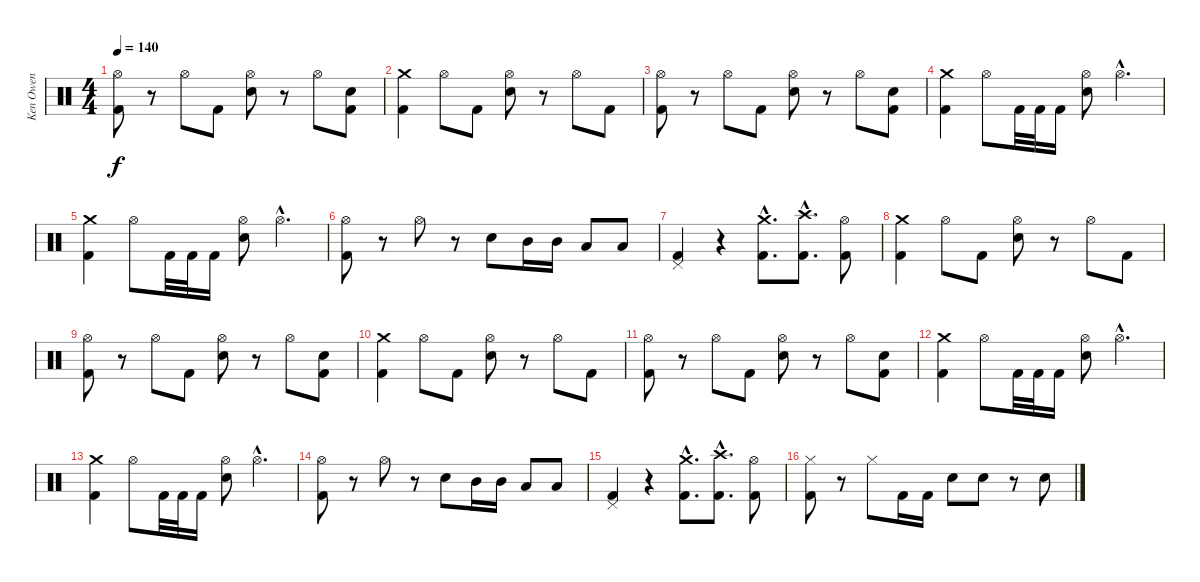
\track ("Ken Owen" "Ken Owen") {instrument percussion}
\staff {score}
\articulation defaults
\ts (4 4)
\tempo 140
\clef neutral
\ks c
("Hi-Hat (open)" "Kick (hit) 2").8{dy f} r.8 "Hi-Hat (open)".8 "Kick (hit) 2".8 ("Hi-Hat (open)" "Electric Snare (hit)").8 r.8 "Hi-Hat (open)".8 ("Electric Snare (hit)" "Kick (hit) 2").8 |
("Crash medium (hit)" "Kick (hit) 2").4 "Hi-Hat (open)".8 "Kick (hit) 2".8 ("Hi-Hat (open)" "Electric Snare (hit)").8 r.8 "Hi-Hat (open)".8 "Kick (hit) 2".8 |
("Hi-Hat (open)" "Kick (hit) 2").8 r.8 "Hi-Hat (open)".8 "Kick (hit) 2".8 ("Hi-Hat (open)" "Electric Snare (hit)").8 r.8 "Hi-Hat (open)".8 ("Electric Snare (hit)" "Kick (hit) 2").8 |
("Crash medium (hit)" "Kick (hit) 2").4 "Hi-Hat (open)".8 "Kick (hit) 2".32 "Kick (hit) 2".32 "Kick (hit) 2".16 ("Hi-Hat (open)" "Electric Snare (hit)").8 "Hi-Hat (open)"{hac}.4{d} |
("Crash medium (hit)" "Kick (hit) 2").4 "Hi-Hat (open)".8 "Kick (hit) 2".32 "Kick (hit) 2".32 "Kick (hit) 2".16 ("Hi-Hat (open)" "Electric Snare (hit)").8 "Hi-Hat (open)"{hac}.4{d} |
("Hi-Hat (open)" "Kick (hit) 2").8 r.8 "Hi-Hat (open)".8 r.8 "Electric Snare (hit)".8 "Mid Tom (hit)".16 "Mid Tom (hit)".16 "Low Floor Tom (hit)".8 "Low Floor Tom (hit)".8 |
("Pedal Hi-Hat (hit)" "Kick (hit) 2").4 r.4 ("Crash medium (hit)"{hac} "Kick (hit) 2"{hac}).8{d} ("Crash high (hit)"{hac} "Kick (hit) 2"{hac}).8{d} ("Hi-Hat (open)" "Kick (hit) 2").8 |
("Crash medium (hit)" "Kick (hit) 2").4 "Hi-Hat (open)".8 "Kick (hit) 2".8 ("Hi-Hat (open)" "Electric Snare (hit)").8 r.8 "Hi-Hat (open)".8 "Kick (hit) 2".8 |
("Hi-Hat (open)" "Kick (hit) 2").8 r.8 "Hi-Hat (open)".8 "Kick (hit) 2".8 ("Hi-Hat (open)" "Electric Snare (hit)").8 r.8 "Hi-Hat (open)".8 ("Electric Snare (hit)" "Kick (hit) 2").8 |
("Crash medium (hit)" "Kick (hit) 2").4 "Hi-Hat (open)".8 "Kick (hit) 2".8 ("Hi-Hat (open)" "Electric Snare (hit)").8 r.8 "Hi-Hat (open)".8 "Kick (hit) 2".8 |
("Hi-Hat (open)" "Kick (hit) 2").8 r.8 "Hi-Hat (open)".8 "Kick (hit) 2".8 ("Hi-Hat (open)" "Electric Snare (hit)").8 r.8 "Hi-Hat (open)".8 ("Electric Snare (hit)" "Kick (hit) 2").8 |
("Crash medium (hit)" "Kick (hit) 2").4 "Hi-Hat (open)".8 "Kick (hit) 2".32 "Kick (hit) 2".32 "Kick (hit) 2".16 ("Hi-Hat (open)" "Electric Snare (hit)").8 "Hi-Hat (open)"{hac}.4{d} |
("Crash medium (hit)" "Kick (hit) 2").4 "Hi-Hat (open)".8 "Kick (hit) 2".32 "Kick (hit) 2".32 "Kick (hit) 2".16 ("Hi-Hat (open)" "Electric Snare (hit)").8 "Hi-Hat (open)"{hac}.4{d} |
("Hi-Hat (open)" "Kick (hit) 2").8 r.8 "Hi-Hat (open)".8 r.8 "Electric Snare (hit)".8 "Mid Tom (hit)".16 "Mid Tom (hit)".16 "Low Floor Tom (hit)".8 "Low Floor Tom (hit)".8 |
("Pedal Hi-Hat (hit)" "Kick (hit) 2").4 r.4 ("Crash medium (hit)"{hac} "Kick (hit) 2"{hac}).8{d} ("Crash high (hit)"{hac} "Kick (hit) 2"{hac}).8{d} ("Hi-Hat (open)" "Kick (hit) 2").8 |
("Hi-Hat (closed)" "Kick (hit) 2").8 r.8 "Hi-Hat (closed)".8 "Kick (hit) 2".16 "Kick (hit) 2".16 "Electric Snare (hit)".8 "Electric Snare (hit)".8 r.8 "Electric Snare (hit)".8
